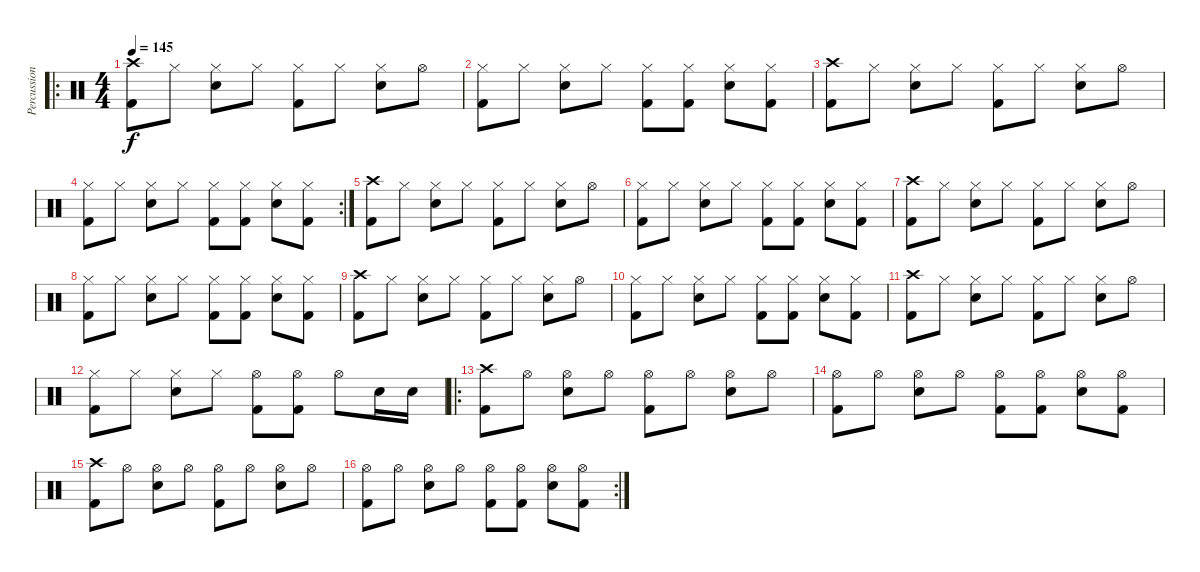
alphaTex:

\track ("Percussion" "Percussion") {instrument percussion}
\staff {score}
\articulation defaults
\ro
\ts (4 4)
\tempo 145
\clef neutral
\ks c
("Kick (hit) 2" "Crash high (hit)").8{dy f} "Hi-Hat (closed)".8 ("Electric Snare (hit)" "Hi-Hat (closed)").8 "Hi-Hat (closed)".8 ("Kick (hit) 2" "Hi-Hat (closed)").8 "Hi-Hat (closed)".8 ("Electric Snare (hit)" "Hi-Hat (closed)").8 "Hi-Hat (open)".8 |
("Kick (hit) 2" "Hi-Hat (closed)").8 "Hi-Hat (closed)".8 ("Electric Snare (hit)" "Hi-Hat (closed)").8 "Hi-Hat (closed)".8 ("Kick (hit) 2" "Hi-Hat (closed)").8 ("Kick (hit) 2" "Hi-Hat (closed)").8 ("Electric Snare (hit)" "Hi-Hat (closed)").8 ("Kick (hit) 2" "Hi-Hat (closed)").8 |
("Kick (hit) 2" "Crash high (hit)").8 "Hi-Hat (closed)".8 ("Electric Snare (hit)" "Hi-Hat (closed)").8 "Hi-Hat (closed)".8 ("Kick (hit) 2" "Hi-Hat (closed)").8 "Hi-Hat (closed)".8 ("Electric Snare (hit)" "Hi-Hat (closed)").8 "Hi-Hat (open)".8 |
\rc 2
("Kick (hit) 2" "Hi-Hat (closed)").8 "Hi-Hat (closed)".8 ("Electric Snare (hit)" "Hi-Hat (closed)").8 "Hi-Hat (closed)".8 ("Kick (hit) 2" "Hi-Hat (closed)").8 ("Kick (hit) 2" "Hi-Hat (closed)").8 ("Electric Snare (hit)" "Hi-Hat (closed)").8 ("Kick (hit) 2" "Hi-Hat (closed)").8 |
("Kick (hit) 2" "Crash high (hit)").8 "Hi-Hat (closed)".8 ("Electric Snare (hit)" "Hi-Hat (closed)").8 "Hi-Hat (closed)".8 ("Kick (hit) 2" "Hi-Hat (closed)").8 "Hi-Hat (closed)".8 ("Electric Snare (hit)" "Hi-Hat (closed)").8 "Hi-Hat (open)".8 |
("Kick (hit) 2" "Hi-Hat (closed)").8 "Hi-Hat (closed)".8 ("Electric Snare (hit)" "Hi-Hat (closed)").8 "Hi-Hat (closed)".8 ("Kick (hit) 2" "Hi-Hat (closed)").8 ("Kick (hit) 2" "Hi-Hat (closed)").8 ("Electric Snare (hit)" "Hi-Hat (closed)").8 ("Kick (hit) 2" "Hi-Hat (closed)").8 |
("Kick (hit) 2" "Crash high (hit)").8 "Hi-Hat (closed)".8 ("Electric Snare (hit)" "Hi-Hat (closed)").8 "Hi-Hat (closed)".8 ("Kick (hit) 2" "Hi-Hat (closed)").8 "Hi-Hat (closed)".8 ("Electric Snare (hit)" "Hi-Hat (closed)").8 "Hi-Hat (open)".8 |
("Kick (hit) 2" "Hi-Hat (closed)").8 "Hi-Hat (closed)".8 ("Electric Snare (hit)" "Hi-Hat (closed)").8 "Hi-Hat (closed)".8 ("Kick (hit) 2" "Hi-Hat (closed)").8 ("Kick (hit) 2" "Hi-Hat (closed)").8 ("Electric Snare (hit)" "Hi-Hat (closed)").8 ("Kick (hit) 2" "Hi-Hat (closed)").8 |
("Kick (hit) 2" "Crash high (hit)").8 "Hi-Hat (closed)".8 ("Electric Snare (hit)" "Hi-Hat (closed)").8 "Hi-Hat (closed)".8 ("Kick (hit) 2" "Hi-Hat (closed)").8 "Hi-Hat (closed)".8 ("Electric Snare (hit)" "Hi-Hat (closed)").8 "Hi-Hat (open)".8 |
("Kick (hit) 2" "Hi-Hat (closed)").8 "Hi-Hat (closed)".8 ("Electric Snare (hit)" "Hi-Hat (closed)").8 "Hi-Hat (closed)".8 ("Kick (hit) 2" "Hi-Hat (closed)").8 ("Kick (hit) 2" "Hi-Hat (closed)").8 ("Electric Snare (hit)" "Hi-Hat (closed)").8 ("Kick (hit) 2" "Hi-Hat (closed)").8 |
("Kick (hit) 2" "Crash high (hit)").8 "Hi-Hat (closed)".8 ("Electric Snare (hit)" "Hi-Hat (closed)").8 "Hi-Hat (closed)".8 ("Kick (hit) 2" "Hi-Hat (closed)").8 "Hi-Hat (closed)".8 ("Electric Snare (hit)" "Hi-Hat (closed)").8 "Hi-Hat (open)".8 |
("Kick (hit) 2" "Hi-Hat (closed)").8 "Hi-Hat (closed)".8 ("Electric Snare (hit)" "Hi-Hat (closed)").8 "Hi-Hat (closed)".8 ("Kick (hit) 2" "Hi-Hat (open)").8 ("Kick (hit) 2" "Hi-Hat (open)").8 "Hi-Hat (open)".8 "Electric Snare (hit)".16 "Electric Snare (hit)".16 |
\ro
("Kick (hit) 2" "Crash high (hit)").8 "Hi-Hat (open)".8 ("Electric Snare (hit)" "Hi-Hat (open)").8 "Hi-Hat (open)".8 ("Kick (hit) 2" "Hi-Hat (open)").8 "Hi-Hat (open)".8 ("Electric Snare (hit)" "Hi-Hat (open)").8 "Hi-Hat (open)".8 |
("Kick (hit) 2" "Hi-Hat (open)").8 "Hi-Hat (open)".8 ("Electric Snare (hit)" "Hi-Hat (open)").8 "Hi-Hat (open)".8 ("Kick (hit) 2" "Hi-Hat (open)").8 ("Kick (hit) 2" "Hi-Hat (open)").8 ("Electric Snare (hit)" "Hi-Hat (open)").8 ("Kick (hit) 2" "Hi-Hat (open)").8 |
("Kick (hit) 2" "Crash high (hit)").8 "Hi-Hat (open)".8 ("Electric Snare (hit)" "Hi-Hat (open)").8 "Hi-Hat (open)".8 ("Kick (hit) 2" "Hi-Hat (open)").8 "Hi-Hat (open)".8 ("Electric Snare (hit)" "Hi-Hat (open)").8 "Hi-Hat (open)".8 |
\rc 2
("Kick (hit) 2" "Hi-Hat (open)").8 "Hi-Hat (open)".8 ("Electric Snare (hit)" "Hi-Hat (open)").8 "Hi-Hat (open)".8 ("Kick (hit) 2" "Hi-Hat (open)").8 ("Kick (hit) 2" "Hi-Hat (open)").8 ("Electric Snare (hit)" "Hi-Hat (open)").8 ("Kick (hit) 2" "Hi-Hat (open)").8
